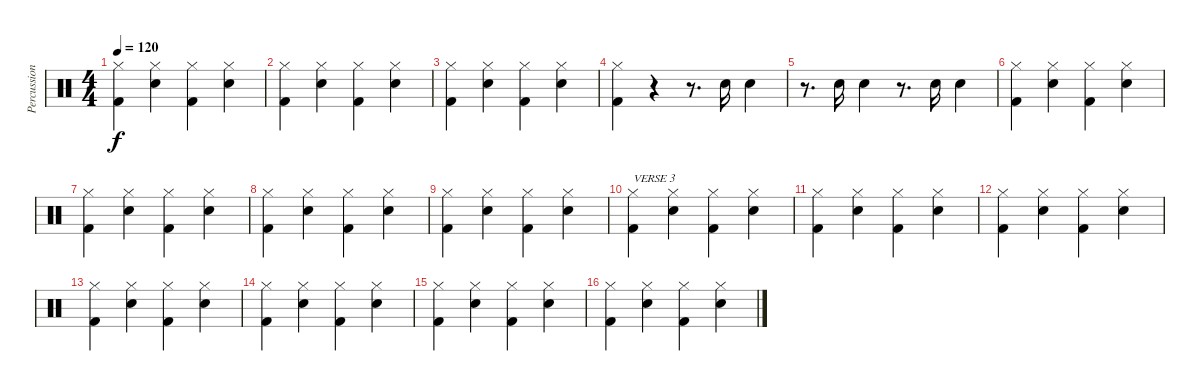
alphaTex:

\track ("Percussions" "Percussion") {instrument percussion}
\staff {score}
\articulation defaults
\ts (4 4)
\tempo 120
\clef neutral
\ks c
("Hi-Hat (closed)" "Kick (hit) 2").4{dy f} ("Hi-Hat (closed)" "Electric Snare (hit)").4 ("Hi-Hat (closed)" "Kick (hit) 2").4 ("Hi-Hat (closed)" "Electric Snare (hit)").4 |
("Hi-Hat (closed)" "Kick (hit) 2").4 ("Hi-Hat (closed)" "Electric Snare (hit)").4 ("Hi-Hat (closed)" "Kick (hit) 2").4 ("Hi-Hat (closed)" "Electric Snare (hit)").4 |
("Hi-Hat (closed)" "Kick (hit) 2").4 ("Hi-Hat (closed)" "Electric Snare (hit)").4 ("Hi-Hat (closed)" "Kick (hit) 2").4 ("Hi-Hat (closed)" "Electric Snare (hit)").4 |
("Hi-Hat (closed)" "Kick (hit) 2").4 r.4 r.8{d} "Electric Snare (hit)".16 "Electric Snare (hit)".4 |
r.8{d} "Electric Snare (hit)".16 "Electric Snare (hit)".4 r.8{d} "Electric Snare (hit)".16 "Electric Snare (hit)".4 |
("Hi-Hat (closed)" "Kick (hit) 2").4 ("Hi-Hat (closed)" "Electric Snare (hit)").4 ("Hi-Hat (closed)" "Kick (hit) 2").4 ("Hi-Hat (closed)" "Electric Snare (hit)").4 |
("Hi-Hat (closed)" "Kick (hit) 2").4 ("Hi-Hat (closed)" "Electric Snare (hit)").4 ("Hi-Hat (closed)" "Kick (hit) 2").4 ("Hi-Hat (closed)" "Electric Snare (hit)").4 |
("Hi-Hat (closed)" "Kick (hit) 2").4 ("Hi-Hat (closed)" "Electric Snare (hit)").4 ("Hi-Hat (closed)" "Kick (hit) 2").4 ("Hi-Hat (closed)" "Electric Snare (hit)").4 |
("Hi-Hat (closed)" "Kick (hit) 2").4 ("Hi-Hat (closed)" "Electric Snare (hit)").4 ("Hi-Hat (closed)" "Kick (hit) 2").4 ("Hi-Hat (closed)" "Electric Snare (hit)").4 |
("Hi-Hat (closed)" "Kick (hit) 2").4{txt "VERSE 3"} ("Hi-Hat (closed)" "Electric Snare (hit)").4 ("Hi-Hat (closed)" "Kick (hit) 2").4 ("Hi-Hat (closed)" "Electric Snare (hit)").4 |
("Hi-Hat (closed)" "Kick (hit) 2").4 ("Hi-Hat (closed)" "Electric Snare (hit)").4 ("Hi-Hat (closed)" "Kick (hit) 2").4 ("Hi-Hat (closed)" "Electric Snare (hit)").4 |
("Hi-Hat (closed)" "Kick (hit) 2").4 ("Hi-Hat (closed)" "Electric Snare (hit)").4 ("Hi-Hat (closed)" "Kick (hit) 2").4 ("Hi-Hat (closed)" "Electric Snare (hit)").4 |
("Hi-Hat (closed)" "Kick (hit) 2").4 ("Hi-Hat (closed)" "Electric Snare (hit)").4 ("Hi-Hat (closed)" "Kick (hit) 2").4 ("Hi-Hat (closed)" "Electric Snare (hit)").4 |
("Hi-Hat (closed)" "Kick (hit) 2").4 ("Hi-Hat (closed)" "Electric Snare (hit)").4 ("Hi-Hat (closed)" "Kick (hit) 2").4 ("Hi-Hat (closed)" "Electric Snare (hit)").4 |
("Hi-Hat (closed)" "Kick (hit) 2").4 ("Hi-Hat (closed)" "Electric Snare (hit)").4 ("Hi-Hat (closed)" "Kick (hit) 2").4 ("Hi-Hat (closed)" "Electric Snare (hit)").4 |
("Hi-Hat (closed)" "Kick (hit) 2").4 ("Hi-Hat (closed)" "Electric Snare (hit)").4 ("Hi-Hat (closed)" "Kick (hit) 2").4 ("Hi-Hat (closed)" "Electric Snare (hit)").4
